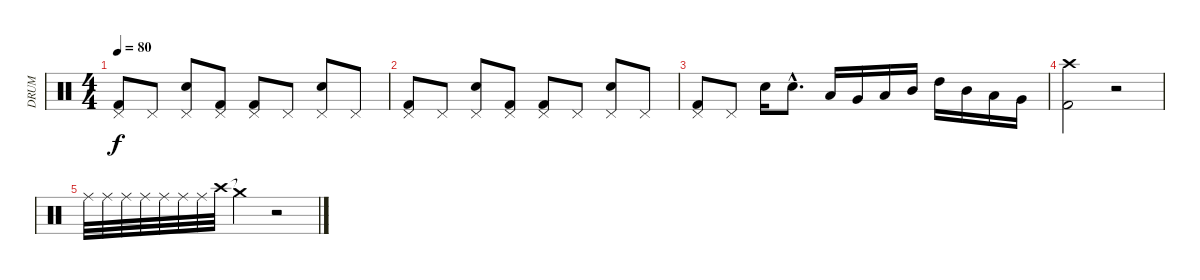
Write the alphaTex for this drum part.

\track ("DRUM" "DRUM") {instrument percussion}
\staff {score}
\articulation defaults
\ts (4 4)
\tempo 80
\clef neutral
\ks c
("Kick (hit) 2" "Pedal Hi-Hat (hit)").8{dy f} "Pedal Hi-Hat (hit)".8 ("Electric Snare (hit)" "Pedal Hi-Hat (hit)").8 ("Kick (hit) 2" "Pedal Hi-Hat (hit)").8 ("Kick (hit) 2" "Pedal Hi-Hat (hit)").8 "Pedal Hi-Hat (hit)".8 ("Electric Snare (hit)" "Pedal Hi-Hat (hit)").8 "Pedal Hi-Hat (hit)".8 |
("Kick (hit) 2" "Pedal Hi-Hat (hit)").8 "Pedal Hi-Hat (hit)".8 ("Electric Snare (hit)" "Pedal Hi-Hat (hit)").8 ("Kick (hit) 2" "Pedal Hi-Hat (hit)").8 ("Kick (hit) 2" "Pedal Hi-Hat (hit)").8 "Pedal Hi-Hat (hit)".8 ("Electric Snare (hit)" "Pedal Hi-Hat (hit)").8 "Pedal Hi-Hat (hit)".8 |
("Kick (hit) 2" "Pedal Hi-Hat (hit)").8 "Pedal Hi-Hat (hit)".8 "Electric Snare (hit)".16 "Electric Snare (hit)"{hac}.8{d} "Low Floor Tom (hit)".16 "Very Low Tom (hit)".16 "Low Tom (hit)".16 "Mid Tom (hit)".16 "High Tom (hit)".16 "Mid Tom (hit)".16 "Low Tom (hit)".16 "Very Low Tom (hit)".16 |
("Kick (hit) 2" "Crash high (hit)").2 r.2 |
"Ride (middle)".32 "Ride (middle)".32 "Ride (middle)".32 "Ride (middle)".32 "Ride (middle)".32 "Ride (middle)".32 "Ride (middle)".32 "Crash high (hit)".32 "Crash medium (hit)"{t}.4 r.2
